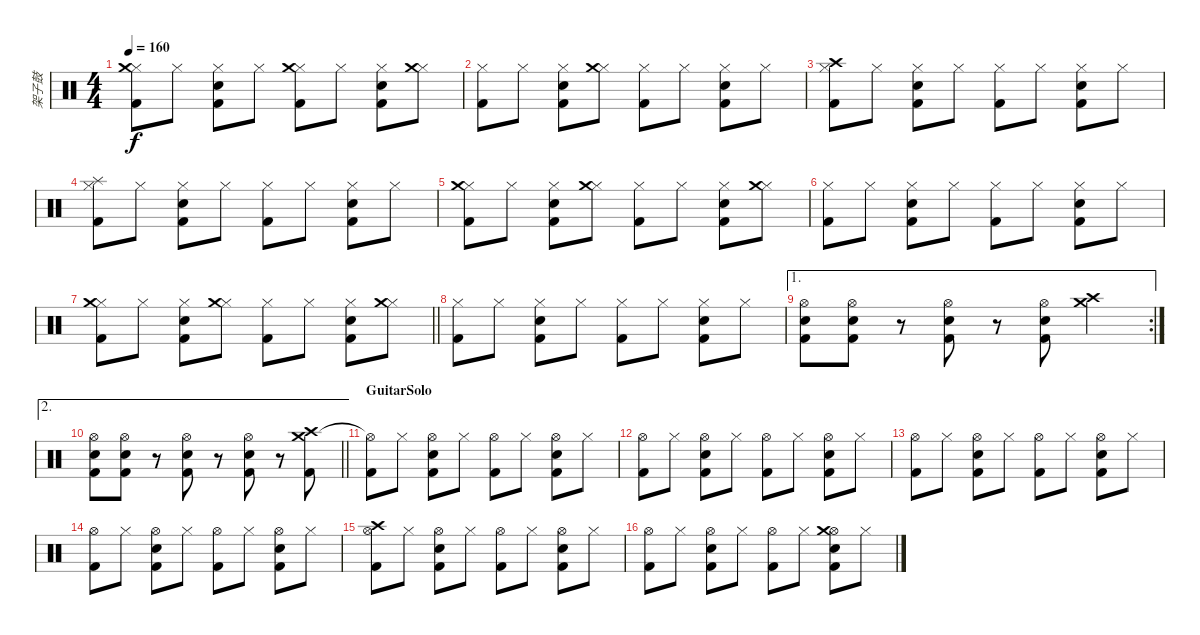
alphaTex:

\track ("架子鼓" "架子鼓") {instrument percussion}
\staff {score}
\articulation defaults
\ts (4 4)
\tempo 160
\clef neutral
\ks c
("Hi-Hat (closed)" "Crash medium (hit)" "Kick (hit) 2").8{dy f} "Hi-Hat (closed)".8 ("Hi-Hat (closed)" "Snare (hit) 2" "Kick (hit) 2").8 "Hi-Hat (closed)".8 ("Hi-Hat (closed)" "Crash medium (hit)" "Kick (hit) 2").8 "Hi-Hat (closed)".8 ("Hi-Hat (closed)" "Snare (hit) 2" "Kick (hit) 2").8 ("Hi-Hat (closed)" "Crash medium (hit)").8 |
("Hi-Hat (closed)" "Kick (hit) 2").8 "Hi-Hat (closed)".8 ("Hi-Hat (closed)" "Snare (hit) 2" "Kick (hit) 2").8 ("Hi-Hat (closed)" "Crash medium (hit)").8 ("Hi-Hat (closed)" "Kick (hit) 2").8 "Hi-Hat (closed)".8 ("Hi-Hat (closed)" "Snare (hit) 2" "Kick (hit) 2").8 "Hi-Hat (closed)".8 |
("Hi-Hat (closed)" "Crash high (hit)" "Kick (hit) 2").8 "Hi-Hat (closed)".8 ("Hi-Hat (closed)" "Snare (hit) 2" "Kick (hit) 2").8 "Hi-Hat (closed)".8 ("Hi-Hat (closed)" "Kick (hit) 2").8 "Hi-Hat (closed)".8 ("Hi-Hat (closed)" "Snare (hit) 2" "Kick (hit) 2").8 "Hi-Hat (closed)".8 |
("Hi-Hat (closed)" "Splash (hit)" "Kick (hit) 2").8 "Hi-Hat (closed)".8 ("Hi-Hat (closed)" "Snare (hit) 2" "Kick (hit) 2").8 "Hi-Hat (closed)".8 ("Hi-Hat (closed)" "Kick (hit) 2").8 "Hi-Hat (closed)".8 ("Hi-Hat (closed)" "Snare (hit) 2" "Kick (hit) 2").8 "Hi-Hat (closed)".8 |
("Hi-Hat (closed)" "Crash medium (hit)" "Kick (hit) 2").8 "Hi-Hat (closed)".8 ("Hi-Hat (closed)" "Snare (hit) 2" "Kick (hit) 2").8 ("Hi-Hat (closed)" "Crash medium (hit)").8 ("Hi-Hat (closed)" "Kick (hit) 2").8 "Hi-Hat (closed)".8 ("Hi-Hat (closed)" "Snare (hit) 2" "Kick (hit) 2").8 ("Hi-Hat (closed)" "Crash medium (hit)").8 |
("Hi-Hat (closed)" "Kick (hit) 2").8 "Hi-Hat (closed)".8 ("Hi-Hat (closed)" "Snare (hit) 2" "Kick (hit) 2").8 "Hi-Hat (closed)".8 ("Hi-Hat (closed)" "Kick (hit) 2").8 "Hi-Hat (closed)".8 ("Hi-Hat (closed)" "Snare (hit) 2" "Kick (hit) 2").8 "Hi-Hat (closed)".8 |
\barLineRight lightlight
("Hi-Hat (closed)" "Crash medium (hit)" "Kick (hit) 2").8 "Hi-Hat (closed)".8 ("Hi-Hat (closed)" "Snare (hit) 2" "Kick (hit) 2").8 ("Hi-Hat (closed)" "Crash medium (hit)").8 ("Hi-Hat (closed)" "Kick (hit) 2").8 "Hi-Hat (closed)".8 ("Hi-Hat (closed)" "Snare (hit) 2" "Kick (hit) 2").8 ("Hi-Hat (closed)" "Crash medium (hit)").8 |
("Hi-Hat (closed)" "Kick (hit) 2").8 "Hi-Hat (closed)".8 ("Hi-Hat (closed)" "Snare (hit) 2" "Kick (hit) 2").8 "Hi-Hat (closed)".8 ("Hi-Hat (closed)" "Kick (hit) 2").8 "Hi-Hat (closed)".8 ("Hi-Hat (closed)" "Snare (hit) 2" "Kick (hit) 2").8 "Hi-Hat (closed)".8 |
\ae 1
\rc 2
("Hi-Hat (open)" "Snare (hit) 2" "Kick (hit) 2").8 ("Hi-Hat (open)" "Snare (hit) 2" "Kick (hit) 2").8 r.8 ("Hi-Hat (open)" "Snare (hit) 2" "Kick (hit) 2").8 r.8 ("Hi-Hat (open)" "Snare (hit) 2" "Kick (hit) 2").8 ("Crash medium (hit)" "Crash high (hit)").4 |
\ae 2
\barLineRight lightlight
("Hi-Hat (open)" "Snare (hit) 2" "Kick (hit) 2").8 ("Hi-Hat (open)" "Snare (hit) 2" "Kick (hit) 2").8 r.8 ("Hi-Hat (open)" "Snare (hit) 2" "Kick (hit) 2").8 r.8 ("Hi-Hat (open)" "Snare (hit) 2" "Kick (hit) 2").8 r.8 ("Crash medium (hit)" "Crash high (hit)" "Kick (hit) 2").8 |
\section ("" "GuitarSolo")
("Hi-Hat (open)"{t} "Kick (hit) 2").8 "Hi-Hat (closed)".8 ("Hi-Hat (open)" "Snare (hit) 2" "Kick (hit) 2").8 "Hi-Hat (closed)".8 ("Hi-Hat (open)" "Kick (hit) 2").8 "Hi-Hat (closed)".8 ("Hi-Hat (open)" "Snare (hit) 2" "Kick (hit) 2").8 "Hi-Hat (closed)".8 |
("Hi-Hat (open)" "Kick (hit) 2").8 "Hi-Hat (closed)".8 ("Hi-Hat (open)" "Snare (hit) 2" "Kick (hit) 2").8 "Hi-Hat (closed)".8 ("Hi-Hat (open)" "Kick (hit) 2").8 "Hi-Hat (closed)".8 ("Hi-Hat (open)" "Snare (hit) 2" "Kick (hit) 2").8 "Hi-Hat (closed)".8 |
("Hi-Hat (open)" "Kick (hit) 2").8 "Hi-Hat (closed)".8 ("Hi-Hat (open)" "Snare (hit) 2" "Kick (hit) 2").8 "Hi-Hat (closed)".8 ("Hi-Hat (open)" "Kick (hit) 2").8 "Hi-Hat (closed)".8 ("Hi-Hat (open)" "Snare (hit) 2" "Kick (hit) 2").8 "Hi-Hat (closed)".8 |
("Hi-Hat (open)" "Kick (hit) 2").8 "Hi-Hat (closed)".8 ("Hi-Hat (open)" "Snare (hit) 2" "Kick (hit) 2").8 "Hi-Hat (closed)".8 ("Hi-Hat (open)" "Kick (hit) 2").8 "Hi-Hat (closed)".8 ("Hi-Hat (open)" "Snare (hit) 2" "Kick (hit) 2").8 "Hi-Hat (closed)".8 |
("Hi-Hat (open)" "Crash high (hit)" "Kick (hit) 2").8 "Hi-Hat (closed)".8 ("Hi-Hat (open)" "Snare (hit) 2" "Kick (hit) 2").8 "Hi-Hat (closed)".8 ("Hi-Hat (open)" "Kick (hit) 2").8 "Hi-Hat (closed)".8 ("Hi-Hat (open)" "Snare (hit) 2" "Kick (hit) 2").8 "Hi-Hat (closed)".8 |
("Hi-Hat (open)" "Kick (hit) 2").8 "Hi-Hat (closed)".8 ("Hi-Hat (open)" "Snare (hit) 2" "Kick (hit) 2").8 "Hi-Hat (closed)".8 ("Hi-Hat (open)" "Kick (hit) 2").8 "Hi-Hat (closed)".8 ("Hi-Hat (open)" "Snare (hit) 2" "Crash medium (hit)" "Kick (hit) 2").8 "Hi-Hat (closed)".8
